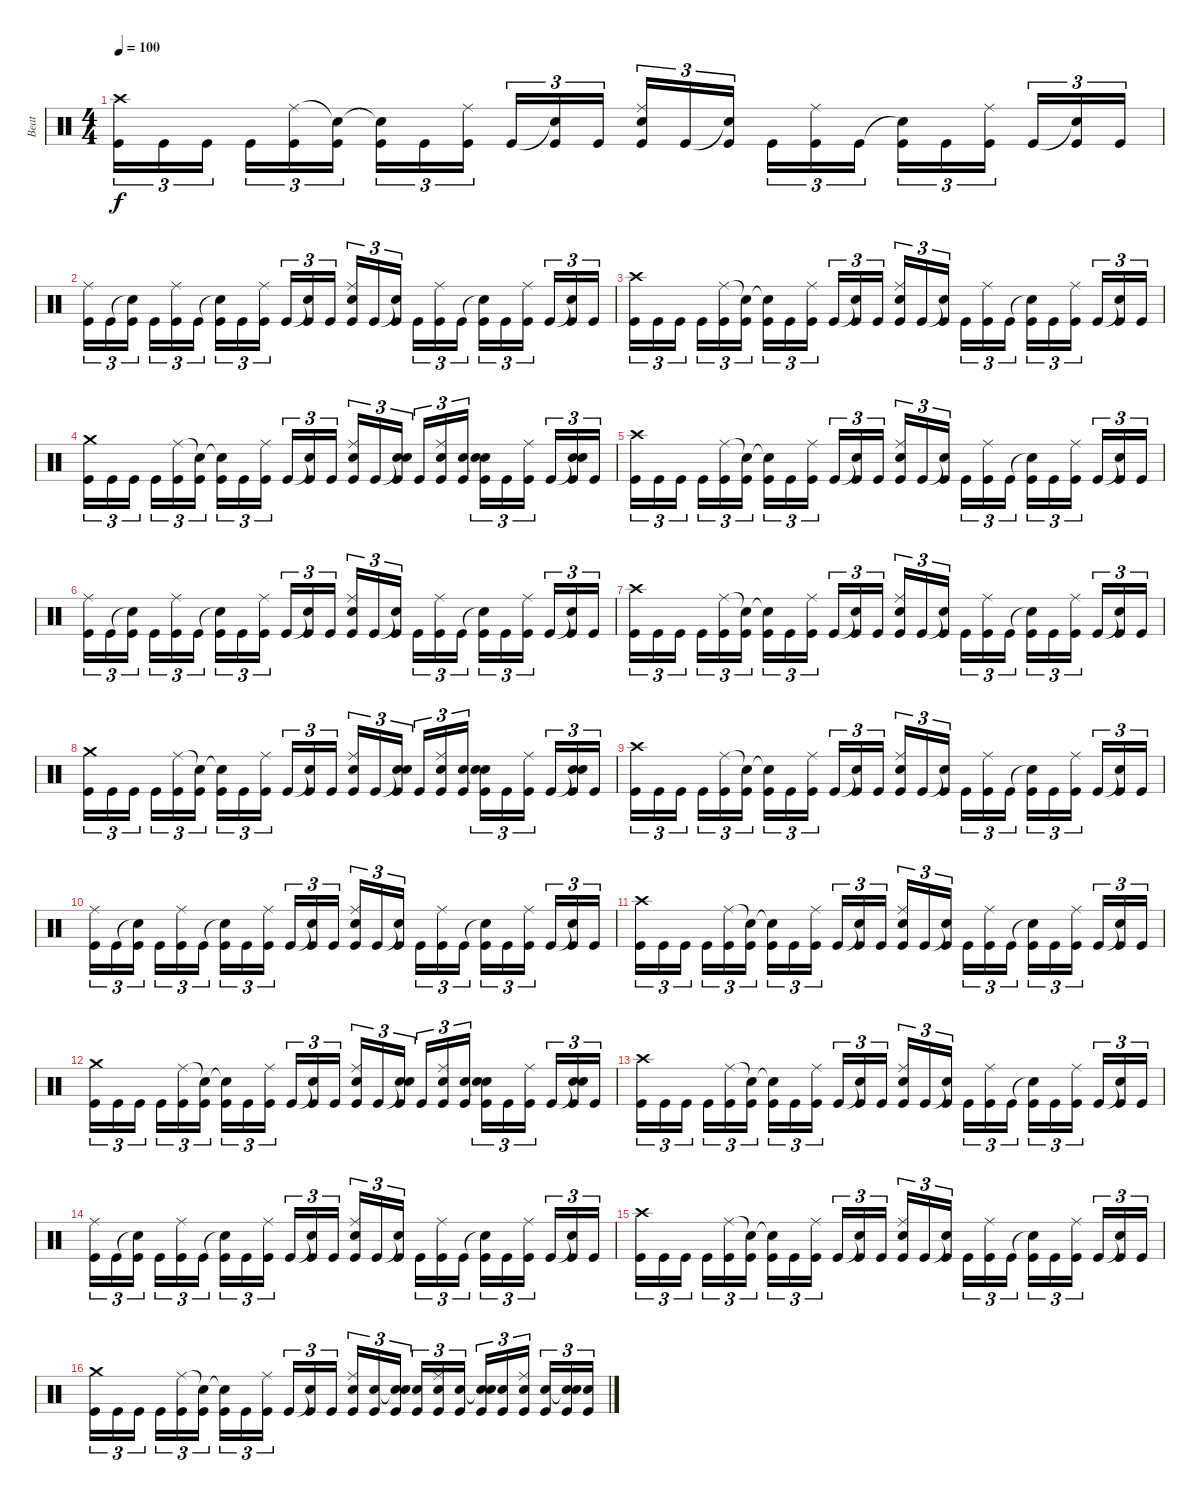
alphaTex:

\track ("Beat" "Beat") {instrument percussion}
\staff {score}
\articulation defaults
\ts (4 4)
\tempo 100
\clef neutral
\ks c
("Crash high (hit)" "Kick (hit)").16{tu (3 2) dy f} "Kick (hit)".16{tu (3 2)} "Kick (hit)".16{tu (3 2)} "Kick (hit)".16{tu (3 2)} ("Ride (middle)" "Kick (hit)").16{tu (3 2)} ("Snare (hit)"{t} "Kick (hit)").16{tu (3 2)} ("Snare (hit)"{t} "Kick (hit)").16{tu (3 2)} "Kick (hit)".16{tu (3 2)} ("Ride (middle)" "Kick (hit)").16{tu (3 2)} "Kick (hit)".16{tu (3 2)} ("Snare (hit)"{t} "Kick (hit)").16{tu (3 2)} "Kick (hit)".16{tu (3 2)} ("Ride (middle)" "Snare (hit) 2" "Kick (hit)").16{tu (3 2)} "Kick (hit)".16{tu (3 2)} ("Snare (hit)"{t} "Kick (hit)").16{tu (3 2)} "Kick (hit)".16{tu (3 2)} ("Ride (middle)" "Kick (hit)").16{tu (3 2)} "Kick (hit)".16{tu (3 2)} ("Snare (hit)"{t} "Kick (hit)").16{tu (3 2)} "Kick (hit)".16{tu (3 2)} ("Ride (middle)" "Kick (hit)").16{tu (3 2)} "Kick (hit)".16{tu (3 2)} ("Snare (hit)"{t} "Kick (hit)").16{tu (3 2)} "Kick (hit)".16{tu (3 2)} |
("Ride (middle)" "Kick (hit)").16{tu (3 2)} "Kick (hit)".16{tu (3 2)} ("Snare (hit)"{t} "Kick (hit)").16{tu (3 2)} "Kick (hit)".16{tu (3 2)} ("Ride (middle)" "Kick (hit)").16{tu (3 2)} "Kick (hit)".16{tu (3 2)} ("Snare (hit)"{t} "Kick (hit)").16{tu (3 2)} "Kick (hit)".16{tu (3 2)} ("Ride (middle)" "Kick (hit)").16{tu (3 2)} "Kick (hit)".16{tu (3 2)} ("Snare (hit)"{t} "Kick (hit)").16{tu (3 2)} "Kick (hit)".16{tu (3 2)} ("Ride (middle)" "Snare (hit) 2" "Kick (hit)").16{tu (3 2)} "Kick (hit)".16{tu (3 2)} ("Snare (hit)"{t} "Kick (hit)").16{tu (3 2)} "Kick (hit)".16{tu (3 2)} ("Ride (middle)" "Kick (hit)").16{tu (3 2)} "Kick (hit)".16{tu (3 2)} ("Snare (hit)"{t} "Kick (hit)").16{tu (3 2)} "Kick (hit)".16{tu (3 2)} ("Ride (middle)" "Kick (hit)").16{tu (3 2)} "Kick (hit)".16{tu (3 2)} ("Snare (hit)"{t} "Kick (hit)").16{tu (3 2)} "Kick (hit)".16{tu (3 2)} |
("Crash high (hit)" "Kick (hit)").16{tu (3 2)} "Kick (hit)".16{tu (3 2)} "Kick (hit)".16{tu (3 2)} "Kick (hit)".16{tu (3 2)} ("Ride (middle)" "Kick (hit)").16{tu (3 2)} ("Snare (hit)"{t} "Kick (hit)").16{tu (3 2)} ("Snare (hit)"{t} "Kick (hit)").16{tu (3 2)} "Kick (hit)".16{tu (3 2)} ("Ride (middle)" "Kick (hit)").16{tu (3 2)} "Kick (hit)".16{tu (3 2)} ("Snare (hit)"{t} "Kick (hit)").16{tu (3 2)} "Kick (hit)".16{tu (3 2)} ("Ride (middle)" "Snare (hit) 2" "Kick (hit)").16{tu (3 2)} "Kick (hit)".16{tu (3 2)} ("Snare (hit)"{t} "Kick (hit)").16{tu (3 2)} "Kick (hit)".16{tu (3 2)} ("Ride (middle)" "Kick (hit)").16{tu (3 2)} "Kick (hit)".16{tu (3 2)} ("Snare (hit)"{t} "Kick (hit)").16{tu (3 2)} "Kick (hit)".16{tu (3 2)} ("Ride (middle)" "Kick (hit)").16{tu (3 2)} "Kick (hit)".16{tu (3 2)} ("Snare (hit)"{t} "Kick (hit)").16{tu (3 2)} "Kick (hit)".16{tu (3 2)} |
("Crash medium (hit)" "Kick (hit)").16{tu (3 2)} "Kick (hit)".16{tu (3 2)} "Kick (hit)".16{tu (3 2)} "Kick (hit)".16{tu (3 2)} ("Ride (middle)" "Kick (hit)").16{tu (3 2)} ("Snare (hit)"{t} "Kick (hit)").16{tu (3 2)} ("Snare (hit)"{t} "Kick (hit)").16{tu (3 2)} "Kick (hit)".16{tu (3 2)} ("Ride (middle)" "Kick (hit)").16{tu (3 2)} "Kick (hit)".16{tu (3 2)} ("Snare (hit)"{t} "Kick (hit)").16{tu (3 2)} "Kick (hit)".16{tu (3 2)} ("Ride (middle)" "Snare (hit) 2" "Kick (hit)").16{tu (3 2)} "Kick (hit)".16{tu (3 2)} ("Snare (hit)"{t} "Snare (hit) 2" "Kick (hit)").16{tu (3 2)} "Kick (hit)".16{tu (3 2)} ("Ride (middle)" "Snare (hit) 2" "Kick (hit)").16{tu (3 2)} ("Snare (hit) 2" "Kick (hit)").16{tu (3 2)} ("Snare (hit)"{t} "Snare (hit) 2" "Kick (hit)").16{tu (3 2)} "Kick (hit)".16{tu (3 2)} ("Ride (middle)" "Kick (hit)").16{tu (3 2)} "Kick (hit)".16{tu (3 2)} ("Snare (hit)"{t} "Snare (hit) 2" "Kick (hit)").16{tu (3 2)} "Kick (hit)".16{tu (3 2)} |
("Crash high (hit)" "Kick (hit)").16{tu (3 2)} "Kick (hit)".16{tu (3 2)} "Kick (hit)".16{tu (3 2)} "Kick (hit)".16{tu (3 2)} ("Ride (middle)" "Kick (hit)").16{tu (3 2)} ("Snare (hit)"{t} "Kick (hit)").16{tu (3 2)} ("Snare (hit)"{t} "Kick (hit)").16{tu (3 2)} "Kick (hit)".16{tu (3 2)} ("Ride (middle)" "Kick (hit)").16{tu (3 2)} "Kick (hit)".16{tu (3 2)} ("Snare (hit)"{t} "Kick (hit)").16{tu (3 2)} "Kick (hit)".16{tu (3 2)} ("Ride (middle)" "Snare (hit) 2" "Kick (hit)").16{tu (3 2)} "Kick (hit)".16{tu (3 2)} ("Snare (hit)"{t} "Kick (hit)").16{tu (3 2)} "Kick (hit)".16{tu (3 2)} ("Ride (middle)" "Kick (hit)").16{tu (3 2)} "Kick (hit)".16{tu (3 2)} ("Snare (hit)"{t} "Kick (hit)").16{tu (3 2)} "Kick (hit)".16{tu (3 2)} ("Ride (middle)" "Kick (hit)").16{tu (3 2)} "Kick (hit)".16{tu (3 2)} ("Snare (hit)"{t} "Kick (hit)").16{tu (3 2)} "Kick (hit)".16{tu (3 2)} |
("Ride (middle)" "Kick (hit)").16{tu (3 2)} "Kick (hit)".16{tu (3 2)} ("Snare (hit)"{t} "Kick (hit)").16{tu (3 2)} "Kick (hit)".16{tu (3 2)} ("Ride (middle)" "Kick (hit)").16{tu (3 2)} "Kick (hit)".16{tu (3 2)} ("Snare (hit)"{t} "Kick (hit)").16{tu (3 2)} "Kick (hit)".16{tu (3 2)} ("Ride (middle)" "Kick (hit)").16{tu (3 2)} "Kick (hit)".16{tu (3 2)} ("Snare (hit)"{t} "Kick (hit)").16{tu (3 2)} "Kick (hit)".16{tu (3 2)} ("Ride (middle)" "Snare (hit) 2" "Kick (hit)").16{tu (3 2)} "Kick (hit)".16{tu (3 2)} ("Snare (hit)"{t} "Kick (hit)").16{tu (3 2)} "Kick (hit)".16{tu (3 2)} ("Ride (middle)" "Kick (hit)").16{tu (3 2)} "Kick (hit)".16{tu (3 2)} ("Snare (hit)"{t} "Kick (hit)").16{tu (3 2)} "Kick (hit)".16{tu (3 2)} ("Ride (middle)" "Kick (hit)").16{tu (3 2)} "Kick (hit)".16{tu (3 2)} ("Snare (hit)"{t} "Kick (hit)").16{tu (3 2)} "Kick (hit)".16{tu (3 2)} |
("Crash high (hit)" "Kick (hit)").16{tu (3 2)} "Kick (hit)".16{tu (3 2)} "Kick (hit)".16{tu (3 2)} "Kick (hit)".16{tu (3 2)} ("Ride (middle)" "Kick (hit)").16{tu (3 2)} ("Snare (hit)"{t} "Kick (hit)").16{tu (3 2)} ("Snare (hit)"{t} "Kick (hit)").16{tu (3 2)} "Kick (hit)".16{tu (3 2)} ("Ride (middle)" "Kick (hit)").16{tu (3 2)} "Kick (hit)".16{tu (3 2)} ("Snare (hit)"{t} "Kick (hit)").16{tu (3 2)} "Kick (hit)".16{tu (3 2)} ("Ride (middle)" "Snare (hit) 2" "Kick (hit)").16{tu (3 2)} "Kick (hit)".16{tu (3 2)} ("Snare (hit)"{t} "Kick (hit)").16{tu (3 2)} "Kick (hit)".16{tu (3 2)} ("Ride (middle)" "Kick (hit)").16{tu (3 2)} "Kick (hit)".16{tu (3 2)} ("Snare (hit)"{t} "Kick (hit)").16{tu (3 2)} "Kick (hit)".16{tu (3 2)} ("Ride (middle)" "Kick (hit)").16{tu (3 2)} "Kick (hit)".16{tu (3 2)} ("Snare (hit)"{t} "Kick (hit)").16{tu (3 2)} "Kick (hit)".16{tu (3 2)} |
("Crash medium (hit)" "Kick (hit)").16{tu (3 2)} "Kick (hit)".16{tu (3 2)} "Kick (hit)".16{tu (3 2)} "Kick (hit)".16{tu (3 2)} ("Ride (middle)" "Kick (hit)").16{tu (3 2)} ("Snare (hit)"{t} "Kick (hit)").16{tu (3 2)} ("Snare (hit)"{t} "Kick (hit)").16{tu (3 2)} "Kick (hit)".16{tu (3 2)} ("Ride (middle)" "Kick (hit)").16{tu (3 2)} "Kick (hit)".16{tu (3 2)} ("Snare (hit)"{t} "Kick (hit)").16{tu (3 2)} "Kick (hit)".16{tu (3 2)} ("Ride (middle)" "Snare (hit) 2" "Kick (hit)").16{tu (3 2)} "Kick (hit)".16{tu (3 2)} ("Snare (hit)"{t} "Snare (hit) 2" "Kick (hit)").16{tu (3 2)} "Kick (hit)".16{tu (3 2)} ("Ride (middle)" "Snare (hit) 2" "Kick (hit)").16{tu (3 2)} ("Snare (hit) 2" "Kick (hit)").16{tu (3 2)} ("Snare (hit)"{t} "Snare (hit) 2" "Kick (hit)").16{tu (3 2)} "Kick (hit)".16{tu (3 2)} ("Ride (middle)" "Kick (hit)").16{tu (3 2)} "Kick (hit)".16{tu (3 2)} ("Snare (hit)"{t} "Snare (hit) 2" "Kick (hit)").16{tu (3 2)} "Kick (hit)".16{tu (3 2)} |
("Crash high (hit)" "Kick (hit)").16{tu (3 2)} "Kick (hit)".16{tu (3 2)} "Kick (hit)".16{tu (3 2)} "Kick (hit)".16{tu (3 2)} ("Ride (middle)" "Kick (hit)").16{tu (3 2)} ("Snare (hit)"{t} "Kick (hit)").16{tu (3 2)} ("Snare (hit)"{t} "Kick (hit)").16{tu (3 2)} "Kick (hit)".16{tu (3 2)} ("Ride (middle)" "Kick (hit)").16{tu (3 2)} "Kick (hit)".16{tu (3 2)} ("Snare (hit)"{t} "Kick (hit)").16{tu (3 2)} "Kick (hit)".16{tu (3 2)} ("Ride (middle)" "Snare (hit) 2" "Kick (hit)").16{tu (3 2)} "Kick (hit)".16{tu (3 2)} ("Snare (hit)"{t} "Kick (hit)").16{tu (3 2)} "Kick (hit)".16{tu (3 2)} ("Ride (middle)" "Kick (hit)").16{tu (3 2)} "Kick (hit)".16{tu (3 2)} ("Snare (hit)"{t} "Kick (hit)").16{tu (3 2)} "Kick (hit)".16{tu (3 2)} ("Ride (middle)" "Kick (hit)").16{tu (3 2)} "Kick (hit)".16{tu (3 2)} ("Snare (hit)"{t} "Kick (hit)").16{tu (3 2)} "Kick (hit)".16{tu (3 2)} |
("Ride (middle)" "Kick (hit)").16{tu (3 2)} "Kick (hit)".16{tu (3 2)} ("Snare (hit)"{t} "Kick (hit)").16{tu (3 2)} "Kick (hit)".16{tu (3 2)} ("Ride (middle)" "Kick (hit)").16{tu (3 2)} "Kick (hit)".16{tu (3 2)} ("Snare (hit)"{t} "Kick (hit)").16{tu (3 2)} "Kick (hit)".16{tu (3 2)} ("Ride (middle)" "Kick (hit)").16{tu (3 2)} "Kick (hit)".16{tu (3 2)} ("Snare (hit)"{t} "Kick (hit)").16{tu (3 2)} "Kick (hit)".16{tu (3 2)} ("Ride (middle)" "Snare (hit) 2" "Kick (hit)").16{tu (3 2)} "Kick (hit)".16{tu (3 2)} ("Snare (hit)"{t} "Kick (hit)").16{tu (3 2)} "Kick (hit)".16{tu (3 2)} ("Ride (middle)" "Kick (hit)").16{tu (3 2)} "Kick (hit)".16{tu (3 2)} ("Snare (hit)"{t} "Kick (hit)").16{tu (3 2)} "Kick (hit)".16{tu (3 2)} ("Ride (middle)" "Kick (hit)").16{tu (3 2)} "Kick (hit)".16{tu (3 2)} ("Snare (hit)"{t} "Kick (hit)").16{tu (3 2)} "Kick (hit)".16{tu (3 2)} |
("Crash high (hit)" "Kick (hit)").16{tu (3 2)} "Kick (hit)".16{tu (3 2)} "Kick (hit)".16{tu (3 2)} "Kick (hit)".16{tu (3 2)} ("Ride (middle)" "Kick (hit)").16{tu (3 2)} ("Snare (hit)"{t} "Kick (hit)").16{tu (3 2)} ("Snare (hit)"{t} "Kick (hit)").16{tu (3 2)} "Kick (hit)".16{tu (3 2)} ("Ride (middle)" "Kick (hit)").16{tu (3 2)} "Kick (hit)".16{tu (3 2)} ("Snare (hit)"{t} "Kick (hit)").16{tu (3 2)} "Kick (hit)".16{tu (3 2)} ("Ride (middle)" "Snare (hit) 2" "Kick (hit)").16{tu (3 2)} "Kick (hit)".16{tu (3 2)} ("Snare (hit)"{t} "Kick (hit)").16{tu (3 2)} "Kick (hit)".16{tu (3 2)} ("Ride (middle)" "Kick (hit)").16{tu (3 2)} "Kick (hit)".16{tu (3 2)} ("Snare (hit)"{t} "Kick (hit)").16{tu (3 2)} "Kick (hit)".16{tu (3 2)} ("Ride (middle)" "Kick (hit)").16{tu (3 2)} "Kick (hit)".16{tu (3 2)} ("Snare (hit)"{t} "Kick (hit)").16{tu (3 2)} "Kick (hit)".16{tu (3 2)} |
("Crash medium (hit)" "Kick (hit)").16{tu (3 2)} "Kick (hit)".16{tu (3 2)} "Kick (hit)".16{tu (3 2)} "Kick (hit)".16{tu (3 2)} ("Ride (middle)" "Kick (hit)").16{tu (3 2)} ("Snare (hit)"{t} "Kick (hit)").16{tu (3 2)} ("Snare (hit)"{t} "Kick (hit)").16{tu (3 2)} "Kick (hit)".16{tu (3 2)} ("Ride (middle)" "Kick (hit)").16{tu (3 2)} "Kick (hit)".16{tu (3 2)} ("Snare (hit)"{t} "Kick (hit)").16{tu (3 2)} "Kick (hit)".16{tu (3 2)} ("Ride (middle)" "Snare (hit) 2" "Kick (hit)").16{tu (3 2)} "Kick (hit)".16{tu (3 2)} ("Snare (hit)"{t} "Snare (hit) 2" "Kick (hit)").16{tu (3 2)} "Kick (hit)".16{tu (3 2)} ("Ride (middle)" "Snare (hit) 2" "Kick (hit)").16{tu (3 2)} ("Snare (hit) 2" "Kick (hit)").16{tu (3 2)} ("Snare (hit)"{t} "Snare (hit) 2" "Kick (hit)").16{tu (3 2)} "Kick (hit)".16{tu (3 2)} ("Ride (middle)" "Kick (hit)").16{tu (3 2)} "Kick (hit)".16{tu (3 2)} ("Snare (hit)"{t} "Snare (hit) 2" "Kick (hit)").16{tu (3 2)} "Kick (hit)".16{tu (3 2)} |
("Crash high (hit)" "Kick (hit)").16{tu (3 2)} "Kick (hit)".16{tu (3 2)} "Kick (hit)".16{tu (3 2)} "Kick (hit)".16{tu (3 2)} ("Ride (middle)" "Kick (hit)").16{tu (3 2)} ("Snare (hit)"{t} "Kick (hit)").16{tu (3 2)} ("Snare (hit)"{t} "Kick (hit)").16{tu (3 2)} "Kick (hit)".16{tu (3 2)} ("Ride (middle)" "Kick (hit)").16{tu (3 2)} "Kick (hit)".16{tu (3 2)} ("Snare (hit)"{t} "Kick (hit)").16{tu (3 2)} "Kick (hit)".16{tu (3 2)} ("Ride (middle)" "Snare (hit) 2" "Kick (hit)").16{tu (3 2)} "Kick (hit)".16{tu (3 2)} ("Snare (hit)"{t} "Kick (hit)").16{tu (3 2)} "Kick (hit)".16{tu (3 2)} ("Ride (middle)" "Kick (hit)").16{tu (3 2)} "Kick (hit)".16{tu (3 2)} ("Snare (hit)"{t} "Kick (hit)").16{tu (3 2)} "Kick (hit)".16{tu (3 2)} ("Ride (middle)" "Kick (hit)").16{tu (3 2)} "Kick (hit)".16{tu (3 2)} ("Snare (hit)"{t} "Kick (hit)").16{tu (3 2)} "Kick (hit)".16{tu (3 2)} |
("Ride (middle)" "Kick (hit)").16{tu (3 2)} "Kick (hit)".16{tu (3 2)} ("Snare (hit)"{t} "Kick (hit)").16{tu (3 2)} "Kick (hit)".16{tu (3 2)} ("Ride (middle)" "Kick (hit)").16{tu (3 2)} "Kick (hit)".16{tu (3 2)} ("Snare (hit)"{t} "Kick (hit)").16{tu (3 2)} "Kick (hit)".16{tu (3 2)} ("Ride (middle)" "Kick (hit)").16{tu (3 2)} "Kick (hit)".16{tu (3 2)} ("Snare (hit)"{t} "Kick (hit)").16{tu (3 2)} "Kick (hit)".16{tu (3 2)} ("Ride (middle)" "Snare (hit) 2" "Kick (hit)").16{tu (3 2)} "Kick (hit)".16{tu (3 2)} ("Snare (hit)"{t} "Kick (hit)").16{tu (3 2)} "Kick (hit)".16{tu (3 2)} ("Ride (middle)" "Kick (hit)").16{tu (3 2)} "Kick (hit)".16{tu (3 2)} ("Snare (hit)"{t} "Kick (hit)").16{tu (3 2)} "Kick (hit)".16{tu (3 2)} ("Ride (middle)" "Kick (hit)").16{tu (3 2)} "Kick (hit)".16{tu (3 2)} ("Snare (hit)"{t} "Kick (hit)").16{tu (3 2)} "Kick (hit)".16{tu (3 2)} |
("Crash high (hit)" "Kick (hit)").16{tu (3 2)} "Kick (hit)".16{tu (3 2)} "Kick (hit)".16{tu (3 2)} "Kick (hit)".16{tu (3 2)} ("Ride (middle)" "Kick (hit)").16{tu (3 2)} ("Snare (hit)"{t} "Kick (hit)").16{tu (3 2)} ("Snare (hit)"{t} "Kick (hit)").16{tu (3 2)} "Kick (hit)".16{tu (3 2)} ("Ride (middle)" "Kick (hit)").16{tu (3 2)} "Kick (hit)".16{tu (3 2)} ("Snare (hit)"{t} "Kick (hit)").16{tu (3 2)} "Kick (hit)".16{tu (3 2)} ("Ride (middle)" "Snare (hit) 2" "Kick (hit)").16{tu (3 2)} "Kick (hit)".16{tu (3 2)} ("Snare (hit)"{t} "Kick (hit)").16{tu (3 2)} "Kick (hit)".16{tu (3 2)} ("Ride (middle)" "Kick (hit)").16{tu (3 2)} "Kick (hit)".16{tu (3 2)} ("Snare (hit)"{t} "Kick (hit)").16{tu (3 2)} "Kick (hit)".16{tu (3 2)} ("Ride (middle)" "Kick (hit)").16{tu (3 2)} "Kick (hit)".16{tu (3 2)} ("Snare (hit)"{t} "Kick (hit)").16{tu (3 2)} "Kick (hit)".16{tu (3 2)} |
("Crash medium (hit)" "Kick (hit)").16{tu (3 2)} "Kick (hit)".16{tu (3 2)} "Kick (hit)".16{tu (3 2)} "Kick (hit)".16{tu (3 2)} ("Ride (middle)" "Kick (hit)").16{tu (3 2)} ("Snare (hit)"{t} "Kick (hit)").16{tu (3 2)} ("Snare (hit)"{t} "Kick (hit)").16{tu (3 2)} "Kick (hit)".16{tu (3 2)} ("Ride (middle)" "Kick (hit)").16{tu (3 2)} "Kick (hit)".16{tu (3 2)} ("Snare (hit)"{t} "Kick (hit)").16{tu (3 2)} "Kick (hit)".16{tu (3 2)} ("Ride (middle)" "Snare (hit) 2" "Kick (hit)").16{tu (3 2)} ("Snare (hit) 2" "Kick (hit)").16{tu (3 2)} ("Snare (hit)"{t} "Snare (hit) 2" "Kick (hit)").16{tu (3 2)} ("Snare (hit) 2" "Kick (hit)").16{tu (3 2)} ("Ride (middle)" "Snare (hit) 2" "Kick (hit)").16{tu (3 2)} ("Snare (hit) 2" "Kick (hit)").16{tu (3 2)} ("Snare (hit)"{t} "Snare (hit) 2" "Kick (hit)").16{tu (3 2)} ("Snare (hit) 2" "Kick (hit)").16{tu (3 2)} ("Ride (middle)" "Snare (hit) 2" "Kick (hit)").16{tu (3 2)} ("Snare (hit) 2" "Kick (hit)").16{tu (3 2)} ("Snare (hit)"{t} "Snare (hit) 2" "Kick (hit)").16{tu (3 2)} ("Snare (hit) 2" "Kick (hit)").16{tu (3 2)}
